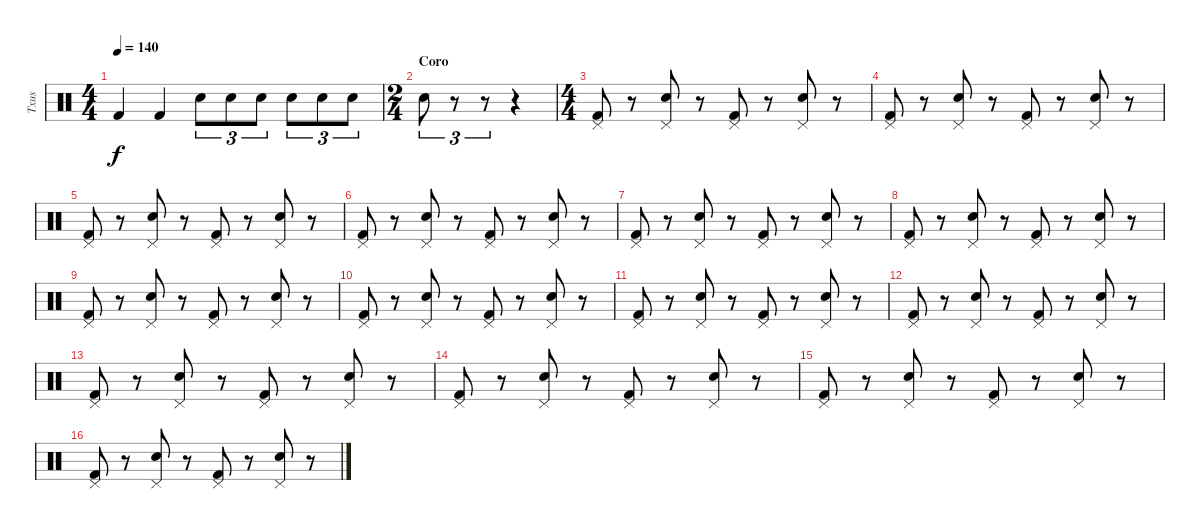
\track ("Txus" "Txus") {instrument percussion}
\staff {score}
\articulation defaults
\ts (4 4)
\tempo 140
\clef neutral
\ks c "Kick (hit) 2".4{dy f} "Kick (hit) 2".4 "Snare (hit) 2".8{tu (3 2)} "Snare (hit) 2".8{tu (3 2)} "Snare (hit) 2".8{tu (3 2)} "Snare (hit) 2".8{tu (3 2)} "Snare (hit) 2".8{tu (3 2)} "Snare (hit) 2".8{tu (3 2)}
|
\ts (2 4)
\section ("" "Coro")
"Snare (hit) 2".8{tu (3 2)} r.8{tu (3 2)} r.8{tu (3 2)} r.4 |
\ts (4 4)
("Pedal Hi-Hat (hit)" "Kick (hit) 2").8 r.8 ("Pedal Hi-Hat (hit)" "Snare (hit) 2").8 r.8 ("Pedal Hi-Hat (hit)" "Kick (hit) 2").8 r.8 ("Pedal Hi-Hat (hit)" "Snare (hit) 2").8 r.8 |
("Pedal Hi-Hat (hit)" "Kick (hit) 2").8 r.8 ("Pedal Hi-Hat (hit)" "Snare (hit) 2").8 r.8 ("Pedal Hi-Hat (hit)" "Kick (hit) 2").8 r.8 ("Pedal Hi-Hat (hit)" "Snare (hit) 2").8 r.8 |
("Pedal Hi-Hat (hit)" "Kick (hit) 2").8 r.8 ("Pedal Hi-Hat (hit)" "Snare (hit) 2").8 r.8 ("Pedal Hi-Hat (hit)" "Kick (hit) 2").8 r.8 ("Pedal Hi-Hat (hit)" "Snare (hit) 2").8 r.8 |
("Pedal Hi-Hat (hit)" "Kick (hit) 2").8 r.8 ("Pedal Hi-Hat (hit)" "Snare (hit) 2").8 r.8 ("Pedal Hi-Hat (hit)" "Kick (hit) 2").8 r.8 ("Pedal Hi-Hat (hit)" "Snare (hit) 2").8 r.8 |
("Pedal Hi-Hat (hit)" "Kick (hit) 2").8 r.8 ("Pedal Hi-Hat (hit)" "Snare (hit) 2").8 r.8 ("Pedal Hi-Hat (hit)" "Kick (hit) 2").8 r.8 ("Pedal Hi-Hat (hit)" "Snare (hit) 2").8 r.8 |
("Pedal Hi-Hat (hit)" "Kick (hit) 2").8 r.8 ("Pedal Hi-Hat (hit)" "Snare (hit) 2").8 r.8 ("Pedal Hi-Hat (hit)" "Kick (hit) 2").8 r.8 ("Pedal Hi-Hat (hit)" "Snare (hit) 2").8 r.8 |
("Pedal Hi-Hat (hit)" "Kick (hit) 2").8 r.8 ("Pedal Hi-Hat (hit)" "Snare (hit) 2").8 r.8 ("Pedal Hi-Hat (hit)" "Kick (hit) 2").8 r.8 ("Pedal Hi-Hat (hit)" "Snare (hit) 2").8 r.8 |
("Pedal Hi-Hat (hit)" "Kick (hit) 2").8 r.8 ("Pedal Hi-Hat (hit)" "Snare (hit) 2").8 r.8 ("Pedal Hi-Hat (hit)" "Kick (hit) 2").8 r.8 ("Pedal Hi-Hat (hit)" "Snare (hit) 2").8 r.8 |
("Pedal Hi-Hat (hit)" "Kick (hit) 2").8 r.8 ("Pedal Hi-Hat (hit)" "Snare (hit) 2").8 r.8 ("Pedal Hi-Hat (hit)" "Kick (hit) 2").8 r.8 ("Pedal Hi-Hat (hit)" "Snare (hit) 2").8 r.8 |
("Pedal Hi-Hat (hit)" "Kick (hit) 2").8 r.8 ("Pedal Hi-Hat (hit)" "Snare (hit) 2").8 r.8 ("Pedal Hi-Hat (hit)" "Kick (hit) 2").8 r.8 ("Pedal Hi-Hat (hit)" "Snare (hit) 2").8 r.8 |
("Pedal Hi-Hat (hit)" "Kick (hit) 2").8 r.8 ("Pedal Hi-Hat (hit)" "Snare (hit) 2").8 r.8 ("Pedal Hi-Hat (hit)" "Kick (hit) 2").8 r.8 ("Pedal Hi-Hat (hit)" "Snare (hit) 2").8 r.8 |
("Pedal Hi-Hat (hit)" "Kick (hit) 2").8 r.8 ("Pedal Hi-Hat (hit)" "Snare (hit) 2").8 r.8 ("Pedal Hi-Hat (hit)" "Kick (hit) 2").8 r.8 ("Pedal Hi-Hat (hit)" "Snare (hit) 2").8 r.8 |
("Pedal Hi-Hat (hit)" "Kick (hit) 2").8 r.8 ("Pedal Hi-Hat (hit)" "Snare (hit) 2").8 r.8 ("Pedal Hi-Hat (hit)" "Kick (hit) 2").8 r.8 ("Pedal Hi-Hat (hit)" "Snare (hit) 2").8 r.8 |
("Pedal Hi-Hat (hit)" "Kick (hit) 2").8 r.8 ("Pedal Hi-Hat (hit)" "Snare (hit) 2").8 r.8 ("Pedal Hi-Hat (hit)" "Kick (hit) 2").8 r.8 ("Pedal Hi-Hat (hit)" "Snare (hit) 2").8 r.8
